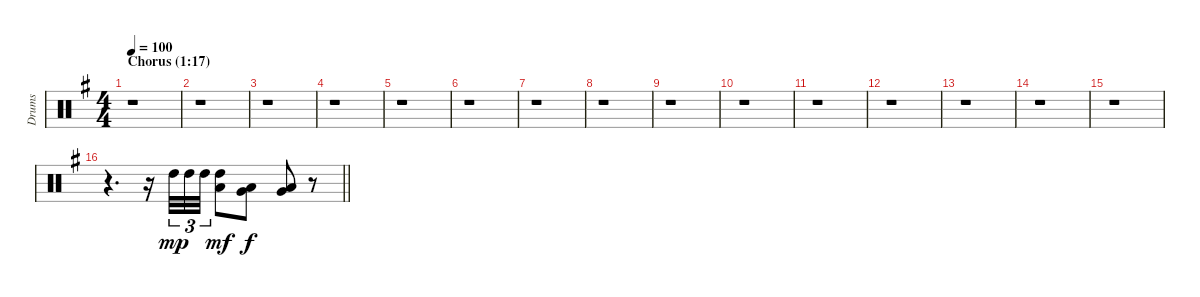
\track ("Drums" "Drums") {instrument percussion}
\staff {score}
\articulation defaults
\ts (4 4)
\section ("" "Chorus (1:17)")
\tempo 100
\clef neutral
\ks g
r.1{dy mp} |
r.1 |
r.1 |
r.1 |
r.1 |
r.1 |
r.1 |
r.1 |
r.1 |
r.1 |
r.1 |
r.1 |
r.1 |
r.1 |
r.1 |
\barLineRight lightlight
r.4{d} r.16 "High Tom (hit)".32{tu (3 2)} "High Tom (hit)".32{tu (3 2)} "High Tom (hit)".32{tu (3 2)} ("High Tom (hit)" "Low Tom (hit)").8{dy mf} ("Low Tom (hit)" "Very Low Tom (hit)").8{dy f} ("Low Tom (hit)" "Very Low Tom (hit)").8 r.8
